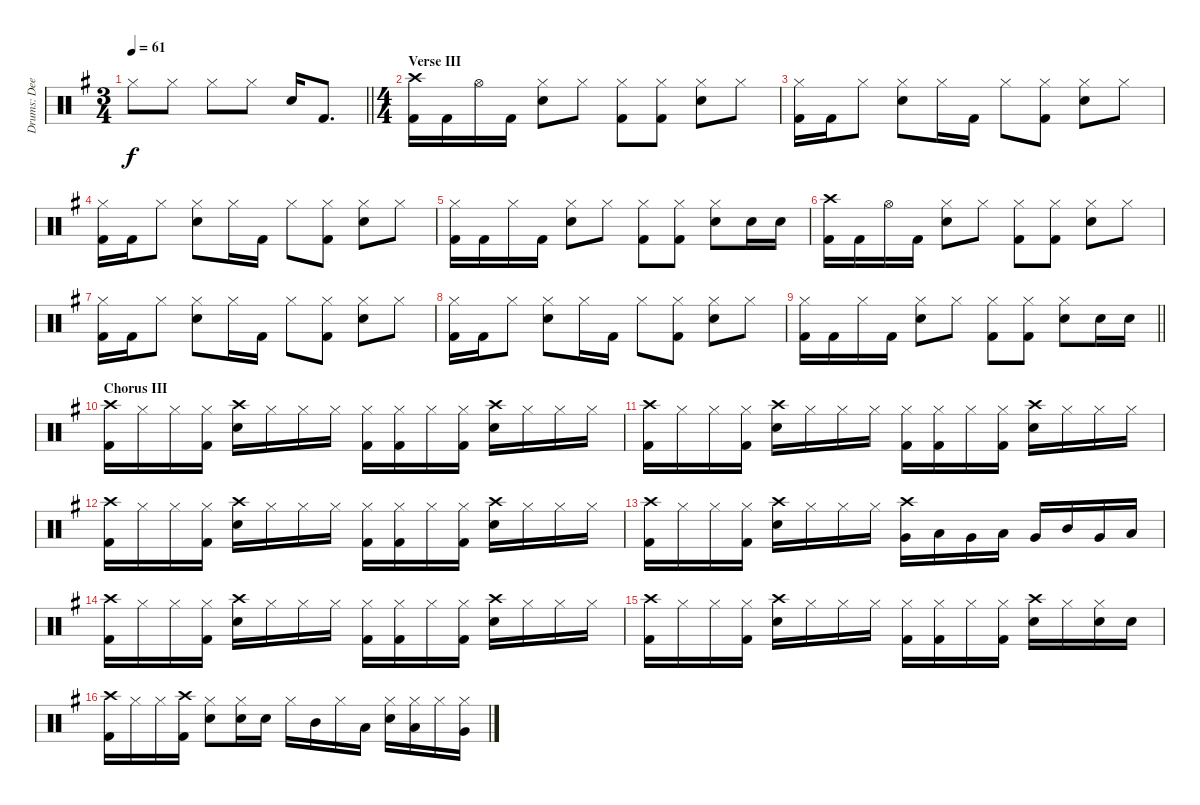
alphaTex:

\track ("Drums: Deen" "Drums: Dee") {instrument percussion}
\staff {score}
\articulation defaults
\ts (3 4)
\tempo 61
\clef neutral
\barLineRight lightlight
\ks g "Hi-Hat (closed)".8{dy f} "Hi-Hat (closed)".8 "Hi-Hat (closed)".8 "Hi-Hat (closed)".8 "Electric Snare (hit)".16 "Kick (hit) 2".8{d}
|
\ts (4 4)
\section ("" "Verse III")
("Crash high (hit)" "Kick (hit) 2").16 "Kick (hit) 2".16 "Hi-Hat (open)".16 "Kick (hit) 2".16 ("Hi-Hat (closed)" "Electric Snare (hit)").8 "Hi-Hat (closed)".8 ("Hi-Hat (closed)" "Kick (hit) 2").8 ("Hi-Hat (closed)" "Kick (hit) 2").8 ("Hi-Hat (closed)" "Electric Snare (hit)").8 "Hi-Hat (closed)".8 |
("Hi-Hat (closed)" "Kick (hit) 2").16 "Kick (hit) 2".16 "Hi-Hat (closed)".8 ("Hi-Hat (closed)" "Electric Snare (hit)").8 "Hi-Hat (closed)".16 "Kick (hit) 2".16 "Hi-Hat (closed)".8 ("Hi-Hat (closed)" "Kick (hit) 2").8 ("Hi-Hat (closed)" "Electric Snare (hit)").8 "Hi-Hat (closed)".8 |
("Hi-Hat (closed)" "Kick (hit) 2").16 "Kick (hit) 2".16 "Hi-Hat (closed)".8 ("Hi-Hat (closed)" "Electric Snare (hit)").8 "Hi-Hat (closed)".16 "Kick (hit) 2".16 "Hi-Hat (closed)".8 ("Hi-Hat (closed)" "Kick (hit) 2").8 ("Hi-Hat (closed)" "Electric Snare (hit)").8 "Hi-Hat (closed)".8 |
("Hi-Hat (closed)" "Kick (hit) 2").16 "Kick (hit) 2".16 "Hi-Hat (closed)".16 "Kick (hit) 2".16 ("Hi-Hat (closed)" "Electric Snare (hit)").8 "Hi-Hat (closed)".8 ("Hi-Hat (closed)" "Kick (hit) 2").8 ("Hi-Hat (closed)" "Kick (hit) 2").8 ("Hi-Hat (closed)" "Electric Snare (hit)").8 "Electric Snare (hit)".16 "Electric Snare (hit)".16 |
("Crash high (hit)" "Kick (hit) 2").16 "Kick (hit) 2".16 "Hi-Hat (open)".16 "Kick (hit) 2".16 ("Hi-Hat (closed)" "Electric Snare (hit)").8 "Hi-Hat (closed)".8 ("Hi-Hat (closed)" "Kick (hit) 2").8 ("Hi-Hat (closed)" "Kick (hit) 2").8 ("Hi-Hat (closed)" "Electric Snare (hit)").8 "Hi-Hat (closed)".8 |
("Hi-Hat (closed)" "Kick (hit) 2").16 "Kick (hit) 2".16 "Hi-Hat (closed)".8 ("Hi-Hat (closed)" "Electric Snare (hit)").8 "Hi-Hat (closed)".16 "Kick (hit) 2".16 "Hi-Hat (closed)".8 ("Hi-Hat (closed)" "Kick (hit) 2").8 ("Hi-Hat (closed)" "Electric Snare (hit)").8 "Hi-Hat (closed)".8 |
("Hi-Hat (closed)" "Kick (hit) 2").16 "Kick (hit) 2".16 "Hi-Hat (closed)".8 ("Hi-Hat (closed)" "Electric Snare (hit)").8 "Hi-Hat (closed)".16 "Kick (hit) 2".16 "Hi-Hat (closed)".8 ("Hi-Hat (closed)" "Kick (hit) 2").8 ("Hi-Hat (closed)" "Electric Snare (hit)").8 "Hi-Hat (closed)".8 |
\barLineRight lightlight
("Hi-Hat (closed)" "Kick (hit) 2").16 "Kick (hit) 2".16 "Hi-Hat (closed)".16 "Kick (hit) 2".16 ("Hi-Hat (closed)" "Electric Snare (hit)").8 "Hi-Hat (closed)".8 ("Hi-Hat (closed)" "Kick (hit) 2").8 ("Hi-Hat (closed)" "Kick (hit) 2").8 ("Hi-Hat (closed)" "Electric Snare (hit)").8 "Electric Snare (hit)".16 "Electric Snare (hit)".16 |
\section ("" "Chorus III")
("Crash high (hit)" "Kick (hit) 2").16 "Hi-Hat (closed)".16 "Hi-Hat (closed)".16 ("Hi-Hat (closed)" "Kick (hit) 2").16 ("Crash high (hit)" "Electric Snare (hit)").16 "Hi-Hat (closed)".16 "Hi-Hat (closed)".16 "Hi-Hat (closed)".16 ("Hi-Hat (closed)" "Kick (hit) 2").16 ("Hi-Hat (closed)" "Kick (hit) 2").16 "Hi-Hat (closed)".16 ("Hi-Hat (closed)" "Kick (hit) 2").16 ("Crash high (hit)" "Electric Snare (hit)").16 "Hi-Hat (closed)".16 "Hi-Hat (closed)".16 "Hi-Hat (closed)".16 |
("Crash high (hit)" "Kick (hit) 2").16 "Hi-Hat (closed)".16 "Hi-Hat (closed)".16 ("Hi-Hat (closed)" "Kick (hit) 2").16 ("Crash high (hit)" "Electric Snare (hit)").16 "Hi-Hat (closed)".16 "Hi-Hat (closed)".16 "Hi-Hat (closed)".16 ("Hi-Hat (closed)" "Kick (hit) 2").16 ("Hi-Hat (closed)" "Kick (hit) 2").16 "Hi-Hat (closed)".16 ("Hi-Hat (closed)" "Kick (hit) 2").16 ("Crash high (hit)" "Electric Snare (hit)").16 "Hi-Hat (closed)".16 "Hi-Hat (closed)".16 "Hi-Hat (closed)".16 |
("Crash high (hit)" "Kick (hit) 2").16 "Hi-Hat (closed)".16 "Hi-Hat (closed)".16 ("Hi-Hat (closed)" "Kick (hit) 2").16 ("Crash high (hit)" "Electric Snare (hit)").16 "Hi-Hat (closed)".16 "Hi-Hat (closed)".16 "Hi-Hat (closed)".16 ("Hi-Hat (closed)" "Kick (hit) 2").16 ("Hi-Hat (closed)" "Kick (hit) 2").16 "Hi-Hat (closed)".16 ("Hi-Hat (closed)" "Kick (hit) 2").16 ("Crash high (hit)" "Electric Snare (hit)").16 "Hi-Hat (closed)".16 "Hi-Hat (closed)".16 "Hi-Hat (closed)".16 |
("Crash high (hit)" "Kick (hit) 2").16 "Hi-Hat (closed)".16 "Hi-Hat (closed)".16 ("Hi-Hat (closed)" "Kick (hit) 2").16 ("Crash high (hit)" "Electric Snare (hit)").16 "Hi-Hat (closed)".16 "Hi-Hat (closed)".16 "Hi-Hat (closed)".16 ("Crash high (hit)" "Very Low Tom (hit)").16 "Low Tom (hit)".16 "Very Low Tom (hit)".16 "Low Tom (hit)".16 "Very Low Tom (hit)".16 "Mid Tom (hit)".16 "Very Low Tom (hit)".16 "Low Tom (hit)".16 |
("Crash high (hit)" "Kick (hit) 2").16 "Hi-Hat (closed)".16 "Hi-Hat (closed)".16 ("Hi-Hat (closed)" "Kick (hit) 2").16 ("Crash high (hit)" "Electric Snare (hit)").16 "Hi-Hat (closed)".16 "Hi-Hat (closed)".16 "Hi-Hat (closed)".16 ("Hi-Hat (closed)" "Kick (hit) 2").16 ("Hi-Hat (closed)" "Kick (hit) 2").16 "Hi-Hat (closed)".16 ("Hi-Hat (closed)" "Kick (hit) 2").16 ("Crash high (hit)" "Electric Snare (hit)").16 "Hi-Hat (closed)".16 "Hi-Hat (closed)".16 "Hi-Hat (closed)".16 |
("Crash high (hit)" "Kick (hit) 2").16 "Hi-Hat (closed)".16 "Hi-Hat (closed)".16 ("Hi-Hat (closed)" "Kick (hit) 2").16 ("Crash high (hit)" "Electric Snare (hit)").16 "Hi-Hat (closed)".16 "Hi-Hat (closed)".16 "Hi-Hat (closed)".16 ("Hi-Hat (closed)" "Kick (hit) 2").16 ("Hi-Hat (closed)" "Kick (hit) 2").16 "Hi-Hat (closed)".16 ("Hi-Hat (closed)" "Kick (hit) 2").16 ("Crash high (hit)" "Electric Snare (hit)").16 "Hi-Hat (closed)".16 ("Hi-Hat (closed)" "Electric Snare (hit)").16 "Electric Snare (hit)".16 |
("Crash high (hit)" "Kick (hit) 2").16 "Hi-Hat (closed)".16 "Hi-Hat (closed)".16 ("Crash high (hit)" "Kick (hit) 2").16 ("Hi-Hat (closed)" "Electric Snare (hit)").8 ("Hi-Hat (closed)" "Electric Snare (hit)").16 "Electric Snare (hit)".16 "Hi-Hat (closed)".16 "Mid Tom (hit)".16 "Hi-Hat (closed)".16 "Low Tom (hit)".16 ("Hi-Hat (closed)" "Electric Snare (hit)").16 ("Hi-Hat (closed)" "Low Tom (hit)").16 "Hi-Hat (closed)".16 ("Hi-Hat (closed)" "Very Low Tom (hit)").16
